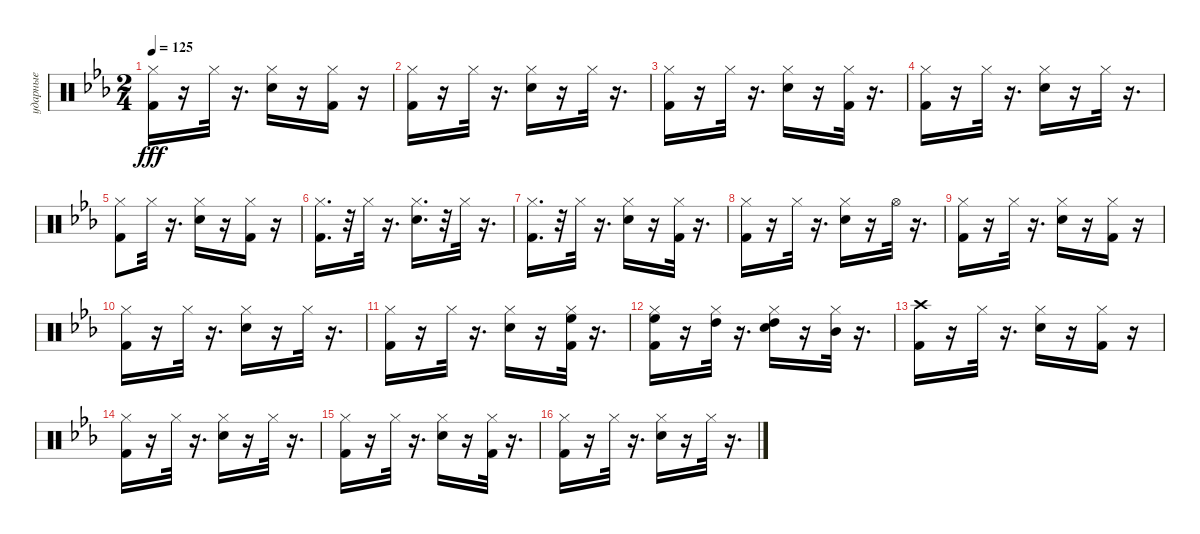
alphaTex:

\track ("ударные" "ударные") {instrument percussion}
\staff {score}
\articulation defaults
\ts (2 4)
\tempo 125
\clef neutral
\ks cminor
("Kick (hit) 2" "Hi-Hat (closed)").16{dy fff} r.16 "Hi-Hat (closed)".32 r.16{d} ("Snare (hit) 2" "Hi-Hat (closed)").16 r.16 ("Kick (hit) 2" "Hi-Hat (closed)").16 r.16 |
("Kick (hit) 2" "Hi-Hat (closed)").16 r.16 "Hi-Hat (closed)".32 r.16{d} ("Snare (hit) 2" "Hi-Hat (closed)").16 r.16 "Hi-Hat (closed)".32 r.16{d} |
("Kick (hit) 2" "Hi-Hat (closed)").16 r.16 "Hi-Hat (closed)".32 r.16{d} ("Snare (hit) 2" "Hi-Hat (closed)").16 r.16 ("Kick (hit) 2" "Hi-Hat (closed)").32 r.16{d} |
("Kick (hit) 2" "Hi-Hat (closed)").16 r.16 "Hi-Hat (closed)".32 r.16{d} ("Snare (hit) 2" "Hi-Hat (closed)").16 r.16 "Hi-Hat (closed)".32 r.16{d} |
("Kick (hit) 2" "Hi-Hat (closed)").8 "Hi-Hat (closed)".32 r.16{d} ("Snare (hit) 2" "Hi-Hat (closed)").16 r.16 ("Kick (hit) 2" "Hi-Hat (closed)").16 r.16 |
("Kick (hit) 2" "Hi-Hat (closed)").16{d} r.32 "Hi-Hat (closed)".32 r.16{d} ("Snare (hit) 2" "Hi-Hat (closed)").16{d} r.32 "Hi-Hat (closed)".32 r.16{d} |
("Kick (hit) 2" "Hi-Hat (closed)").16{d} r.32 "Hi-Hat (closed)".32 r.16{d} ("Snare (hit) 2" "Hi-Hat (closed)").16 r.16 ("Kick (hit) 2" "Hi-Hat (closed)").32 r.16{d} |
("Kick (hit) 2" "Hi-Hat (closed)").16 r.16 "Hi-Hat (closed)".32 r.16{d} ("Snare (hit) 2" "Hi-Hat (closed)").16 r.16 "Hi-Hat (open)".32 r.16{d} |
("Kick (hit) 2" "Hi-Hat (closed)").16 r.16 "Hi-Hat (closed)".32 r.16{d} ("Snare (hit) 2" "Hi-Hat (closed)").16 r.16 ("Kick (hit) 2" "Hi-Hat (closed)").16 r.16 |
("Kick (hit) 2" "Hi-Hat (closed)").16 r.16 "Hi-Hat (closed)".32 r.16{d} ("Snare (hit) 2" "Hi-Hat (closed)").16 r.16 "Hi-Hat (closed)".32 r.16{d} |
("Kick (hit) 2" "Hi-Hat (closed)").16 r.16 "Hi-Hat (closed)".32 r.16{d} ("Snare (hit) 2" "Hi-Hat (closed)").16 r.16 ("High Floor Tom (hit)" "Kick (hit) 2" "Hi-Hat (closed)").32 r.16{d} |
("High Floor Tom (hit)" "Kick (hit) 2" "Hi-Hat (closed)").16 r.16 ("High Tom (hit)" "Hi-Hat (closed)").32 r.16{d} ("High Tom (hit)" "Snare (hit) 2" "Hi-Hat (closed)").16 r.16 ("Mid Tom (hit)" "Hi-Hat (closed)").32 r.16{d} |
("Kick (hit) 2" "Crash high (hit)").16 r.16 "Hi-Hat (closed)".32 r.16{d} ("Snare (hit) 2" "Hi-Hat (closed)").16 r.16 ("Kick (hit) 2" "Hi-Hat (closed)").16 r.16 |
("Kick (hit) 2" "Hi-Hat (closed)").16 r.16 "Hi-Hat (closed)".32 r.16{d} ("Snare (hit) 2" "Hi-Hat (closed)").16 r.16 "Hi-Hat (closed)".32 r.16{d} |
("Kick (hit) 2" "Hi-Hat (closed)").16 r.16 "Hi-Hat (closed)".32 r.16{d} ("Snare (hit) 2" "Hi-Hat (closed)").16 r.16 ("Kick (hit) 2" "Hi-Hat (closed)").32 r.16{d} |
("Kick (hit) 2" "Hi-Hat (closed)").16 r.16 "Hi-Hat (closed)".32 r.16{d} ("Snare (hit) 2" "Hi-Hat (closed)").16 r.16 "Hi-Hat (closed)".32 r.16{d}
